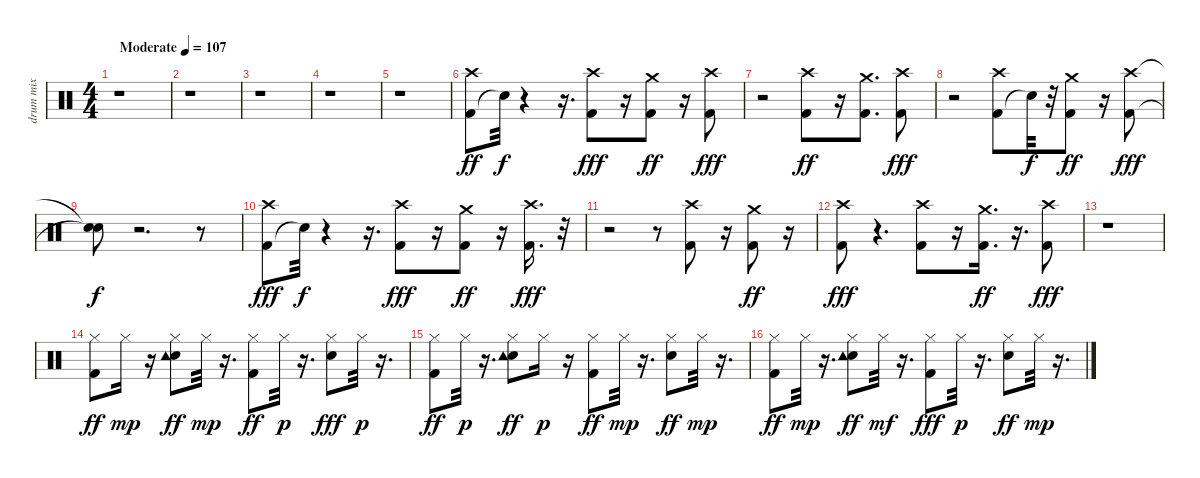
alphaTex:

\track ("drum mix" "drum mix") {instrument percussion}
\staff {score}
\articulation defaults
\ts (4 4)
\tempo (107 "Moderate")
\clef neutral
\ks c
r.1{dy ff} |
r.1 |
r.1 |
r.1 |
r.1 |
("Kick (hit) 2" "Crash high (hit)").8 "Snare (hit)"{t}.32{dy f} r.4 r.16{d} ("Kick (hit) 2" "Crash high (hit)").8{dy fff} r.16 ("Kick (hit) 2" "Crash medium (hit)").8{dy ff} r.16 ("Kick (hit) 2" "Crash high (hit)").8{dy fff} |
r.2 ("Kick (hit) 2" "Crash high (hit)").8{dy ff} r.16 ("Kick (hit) 2" "Crash medium (hit)").8{d} ("Kick (hit) 2" "Crash high (hit)").8{dy fff} |
r.2 ("Kick (hit) 2" "Crash high (hit)").8 "Snare (hit)"{t}.32{dy f} r.32 ("Kick (hit) 2" "Crash medium (hit)").8{dy ff} r.16 ("Kick (hit) 2" "Crash high (hit)").8{dy fff} |
("Snare (hit)"{t} "Snare (hit)"{t}).8{dy f} r.2{d} r.8 |
("Kick (hit) 2" "Crash high (hit)").8{dy fff} "Snare (hit)"{t}.32{dy f} r.4 r.16{d} ("Kick (hit) 2" "Crash high (hit)").8{dy fff} r.16 ("Kick (hit) 2" "Crash medium (hit)").8{dy ff} r.16 ("Kick (hit) 2" "Crash high (hit)").16{d dy fff} r.32 |
r.2 r.8 ("Kick (hit) 2" "Crash high (hit)").8 r.16 ("Kick (hit) 2" "Crash medium (hit)").8{dy ff} r.16 |
("Kick (hit) 2" "Crash high (hit)").8{dy fff} r.4{d} ("Kick (hit) 2" "Crash high (hit)").8 r.16 ("Kick (hit) 2" "Crash medium (hit)").16{d dy ff} r.16{d} ("Kick (hit) 2" "Crash high (hit)").8{dy fff} |
r.1 |
("Kick (hit) 2" "Hi-Hat (closed)").8{dy ff} "Hi-Hat (closed)".16{dy mp} r.16 ("Electric Snare (hit)" "Hi-Hat (closed)" "Tambourine (hit)").8{dy ff} "Hi-Hat (closed)".32{dy mp} r.16{d} ("Kick (hit) 2" "Hi-Hat (closed)").8{dy ff} "Hi-Hat (closed)".32{dy p} r.16{d} ("Electric Snare (hit)" "Hi-Hat (closed)").8{dy fff} "Hi-Hat (closed)".32{dy p} r.16{d} |
("Kick (hit) 2" "Hi-Hat (closed)").8{dy ff} "Hi-Hat (closed)".32{dy p} r.16{d} ("Electric Snare (hit)" "Hi-Hat (closed)" "Tambourine (hit)").8{dy ff} "Hi-Hat (closed)".16{dy p} r.16 ("Kick (hit) 2" "Hi-Hat (closed)").8{dy ff} "Hi-Hat (closed)".32{dy mp} r.16{d} ("Electric Snare (hit)" "Hi-Hat (closed)").8{dy ff} "Hi-Hat (closed)".32{dy mp} r.16{d} |
("Kick (hit) 2" "Hi-Hat (closed)").8{dy ff} "Hi-Hat (closed)".32{dy mp} r.16{d} ("Electric Snare (hit)" "Hi-Hat (closed)" "Tambourine (hit)").8{dy ff} "Hi-Hat (closed)".32{dy mf} r.16{d} ("Kick (hit) 2" "Hi-Hat (closed)").8{dy fff} "Hi-Hat (closed)".32{dy p} r.16{d} ("Electric Snare (hit)" "Hi-Hat (closed)").8{dy ff} "Hi-Hat (closed)".32{dy mp} r.16{d}
